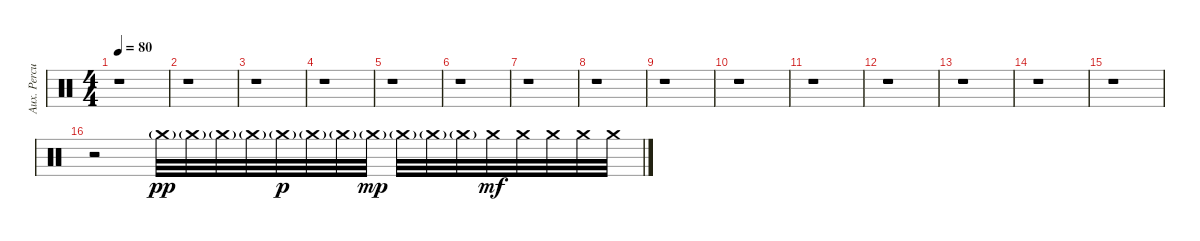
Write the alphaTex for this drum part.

\track ("Aux. Percussion" "Aux. Percu") {instrument percussion}
\staff {score}
\articulation defaults
\ts (4 4)
\tempo 80
\clef neutral
\ks c
r.1{dy pp} |
r.1 |
r.1 |
r.1 |
r.1 |
r.1 |
r.1 |
r.1 |
r.1 |
r.1 |
r.1 |
r.1 |
r.1 |
r.1 |
r.1 |
r.2 "Crash medium (hit)"{g}.32 "Crash medium (hit)"{g}.32 "Crash medium (hit)"{g}.32 "Crash medium (hit)"{g}.32 "Crash medium (hit)"{g}.32{dy p} "Crash medium (hit)"{g}.32 "Crash medium (hit)"{g}.32 "Crash medium (hit)"{g}.32{dy mp} "Crash medium (hit)"{g}.32 "Crash medium (hit)"{g}.32 "Crash medium (hit)"{g}.32 "Crash medium (hit)".32{dy mf} "Crash medium (hit)".32 "Crash medium (hit)".32 "Crash medium (hit)".32 "Crash medium (hit)".32
